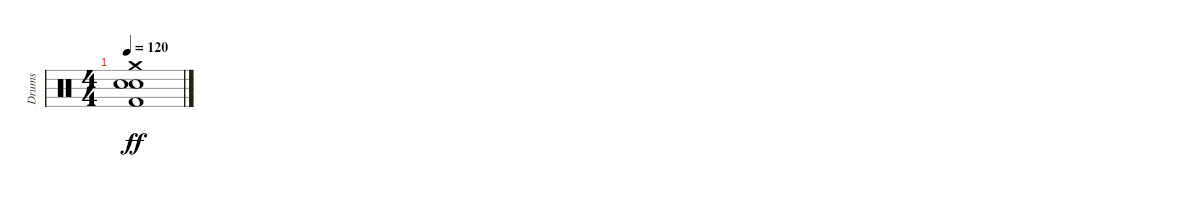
\track ("Drums" "Drums") {instrument percussion}
\staff {score}
\articulation defaults
\ts (4 4)
\tempo 120
\clef neutral
\ks c
("Snare (hit)"{t} "Kick (hit) 2" "Snare (hit)"{t} "Crash medium (hit)").1{dy ff}
